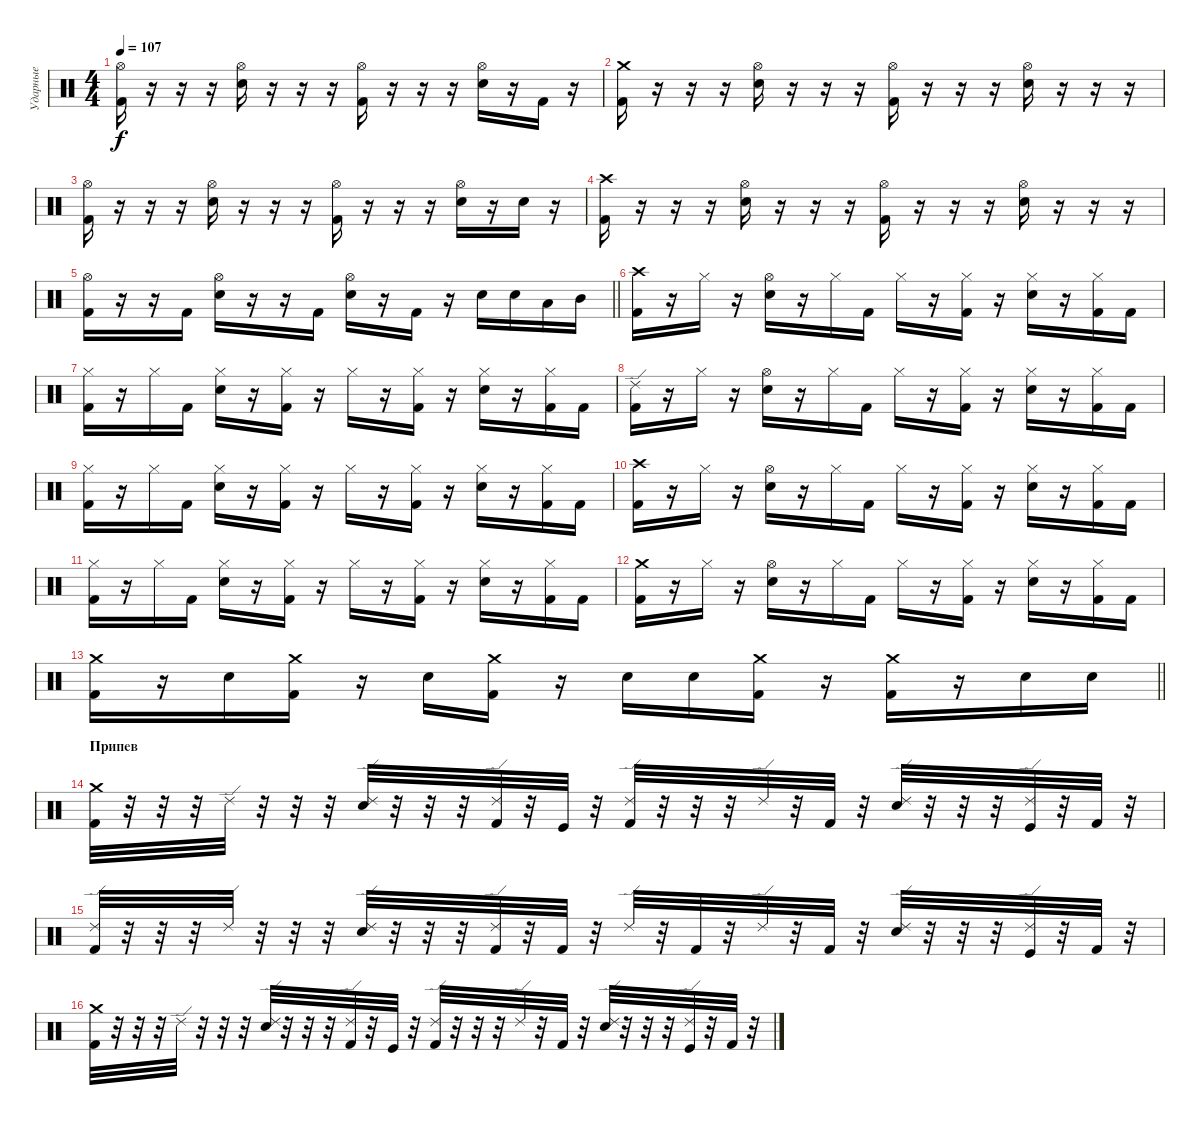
\track ("Ударные" "Ударные") {instrument percussion}
\staff {score}
\articulation defaults
\ts (4 4)
\tempo 107
\clef neutral
\ks c
("Hi-Hat (open)" "Kick (hit) 2").16{dy f} r.16 r.16 r.16 ("Hi-Hat (open)" "Electric Snare (hit)").16 r.16 r.16 r.16 ("Hi-Hat (open)" "Kick (hit) 2").16 r.16 r.16 r.16 ("Hi-Hat (open)" "Electric Snare (hit)").16 r.16 "Kick (hit) 2".16 r.16 |
("Crash medium (hit)" "Kick (hit) 2").16 r.16 r.16 r.16 ("Hi-Hat (open)" "Electric Snare (hit)").16 r.16 r.16 r.16 ("Hi-Hat (open)" "Kick (hit) 2").16 r.16 r.16 r.16 ("Hi-Hat (open)" "Electric Snare (hit)").16 r.16 r.16 r.16 |
("Hi-Hat (open)" "Kick (hit) 2").16 r.16 r.16 r.16 ("Hi-Hat (open)" "Electric Snare (hit)").16 r.16 r.16 r.16 ("Hi-Hat (open)" "Kick (hit) 2").16 r.16 r.16 r.16 ("Hi-Hat (open)" "Electric Snare (hit)").16 r.16 "Electric Snare (hit)".16 r.16 |
("Crash high (hit)" "Kick (hit) 2").16 r.16 r.16 r.16 ("Hi-Hat (open)" "Electric Snare (hit)").16 r.16 r.16 r.16 ("Hi-Hat (open)" "Kick (hit) 2").16 r.16 r.16 r.16 ("Hi-Hat (open)" "Electric Snare (hit)").16 r.16 r.16 r.16 |
\barLineRight lightlight
("Hi-Hat (open)" "Kick (hit) 2").16 r.16 r.16 "Kick (hit) 2".16 ("Hi-Hat (open)" "Electric Snare (hit)").16 r.16 r.16 "Kick (hit) 2".16 ("Hi-Hat (open)" "Electric Snare (hit)").16 r.16 "Kick (hit) 2".16 r.16 "Electric Snare (hit)".16 "Electric Snare (hit)".16 "Low Tom (hit)".16 "Mid Tom (hit)".16 |
("Crash high (hit)" "Kick (hit) 2").16 r.16 "Hi-Hat (closed)".16 r.16 ("Hi-Hat (open)" "Electric Snare (hit)").16 r.16 "Hi-Hat (closed)".16 "Kick (hit) 2".16 "Hi-Hat (closed)".16 r.16 ("Hi-Hat (closed)" "Kick (hit) 2").16 r.16 ("Hi-Hat (closed)" "Electric Snare (hit)").16 r.16 ("Hi-Hat (closed)" "Kick (hit) 2").16 "Kick (hit) 2".16 |
("Hi-Hat (closed)" "Kick (hit) 2").16 r.16 "Hi-Hat (closed)".16 "Kick (hit) 2".16 ("Hi-Hat (closed)" "Electric Snare (hit)").16 r.16 ("Hi-Hat (closed)" "Kick (hit) 2").16 r.16 "Hi-Hat (closed)".16 r.16 ("Hi-Hat (closed)" "Kick (hit) 2").16 r.16 ("Hi-Hat (closed)" "Electric Snare (hit)").16 r.16 ("Hi-Hat (closed)" "Kick (hit) 2").16 "Kick (hit) 2".16 |
("Ride (edge) 2" "Kick (hit) 2").16 r.16 "Hi-Hat (closed)".16 r.16 ("Hi-Hat (open)" "Electric Snare (hit)").16 r.16 "Hi-Hat (closed)".16 "Kick (hit) 2".16 "Hi-Hat (closed)".16 r.16 ("Hi-Hat (closed)" "Kick (hit) 2").16 r.16 ("Hi-Hat (closed)" "Electric Snare (hit)").16 r.16 ("Hi-Hat (closed)" "Kick (hit) 2").16 "Kick (hit) 2".16 |
("Hi-Hat (closed)" "Kick (hit) 2").16 r.16 "Hi-Hat (closed)".16 "Kick (hit) 2".16 ("Hi-Hat (closed)" "Electric Snare (hit)").16 r.16 ("Hi-Hat (closed)" "Kick (hit) 2").16 r.16 "Hi-Hat (closed)".16 r.16 ("Hi-Hat (closed)" "Kick (hit) 2").16 r.16 ("Hi-Hat (closed)" "Electric Snare (hit)").16 r.16 ("Hi-Hat (closed)" "Kick (hit) 2").16 "Kick (hit) 2".16 |
("Crash high (hit)" "Kick (hit) 2").16 r.16 "Hi-Hat (closed)".16 r.16 ("Hi-Hat (open)" "Electric Snare (hit)").16 r.16 "Hi-Hat (closed)".16 "Kick (hit) 2".16 "Hi-Hat (closed)".16 r.16 ("Hi-Hat (closed)" "Kick (hit) 2").16 r.16 ("Hi-Hat (closed)" "Electric Snare (hit)").16 r.16 ("Hi-Hat (closed)" "Kick (hit) 2").16 "Kick (hit) 2".16 |
("Hi-Hat (closed)" "Kick (hit) 2").16 r.16 "Hi-Hat (closed)".16 "Kick (hit) 2".16 ("Hi-Hat (closed)" "Electric Snare (hit)").16 r.16 ("Hi-Hat (closed)" "Kick (hit) 2").16 r.16 "Hi-Hat (closed)".16 r.16 ("Hi-Hat (closed)" "Kick (hit) 2").16 r.16 ("Hi-Hat (closed)" "Electric Snare (hit)").16 r.16 ("Hi-Hat (closed)" "Kick (hit) 2").16 "Kick (hit) 2".16 |
("Crash medium (hit)" "Kick (hit) 2").16 r.16 "Hi-Hat (closed)".16 r.16 ("Hi-Hat (open)" "Electric Snare (hit)").16 r.16 "Hi-Hat (closed)".16 "Kick (hit) 2".16 "Hi-Hat (closed)".16 r.16 ("Hi-Hat (closed)" "Kick (hit) 2").16 r.16 ("Hi-Hat (closed)" "Electric Snare (hit)").16 r.16 ("Hi-Hat (closed)" "Kick (hit) 2").16 "Kick (hit) 2".16 |
\barLineRight lightlight
("Crash medium (hit)" "Kick (hit) 2").16 r.16 "Electric Snare (hit)".16 ("Crash medium (hit)" "Kick (hit) 2").16 r.16 "Electric Snare (hit)".16 ("Crash medium (hit)" "Kick (hit) 2").16 r.16 "Electric Snare (hit)".16 "Electric Snare (hit)".16 ("Crash medium (hit)" "Kick (hit) 2").16 r.16 ("Crash medium (hit)" "Kick (hit) 2").16 r.16 "Electric Snare (hit)".16 "Electric Snare (hit)".16 |
\section ("" "Припев")
("Crash medium (hit)" "Kick (hit) 2").32 r.32 r.32 r.32 "Ride (edge) 2".32 r.32 r.32 r.32 ("Ride (edge) 2" "Electric Snare (hit)").32 r.32 r.32 r.32 ("Ride (edge) 2" "Kick (hit) 2").32 r.32 "Kick (hit)".32 r.32 ("Ride (edge) 2" "Kick (hit) 2").32 r.32 r.32 r.32 "Ride (edge) 2".32 r.32 "Kick (hit) 2".32 r.32 ("Ride (edge) 2" "Electric Snare (hit)").32 r.32 r.32 r.32 ("Ride (edge) 2" "Kick (hit)").32 r.32 "Kick (hit) 2".32 r.32 |
("Ride (edge) 2" "Kick (hit) 2").32 r.32 r.32 r.32 "Ride (edge) 2".32 r.32 r.32 r.32 ("Ride (edge) 2" "Electric Snare (hit)").32 r.32 r.32 r.32 ("Ride (edge) 2" "Kick (hit) 2").32 r.32 "Kick (hit) 2".32 r.32 "Ride (edge) 2".32 r.32 "Kick (hit) 2".32 r.32 "Ride (edge) 2".32 r.32 "Kick (hit) 2".32 r.32 ("Ride (edge) 2" "Electric Snare (hit)").32 r.32 r.32 r.32 ("Ride (edge) 2" "Kick (hit)").32 r.32 "Kick (hit) 2".32 r.32 |
("Crash medium (hit)" "Kick (hit) 2").32 r.32 r.32 r.32 "Ride (edge) 2".32 r.32 r.32 r.32 ("Ride (edge) 2" "Electric Snare (hit)").32 r.32 r.32 r.32 ("Ride (edge) 2" "Kick (hit) 2").32 r.32 "Kick (hit)".32 r.32 ("Ride (edge) 2" "Kick (hit) 2").32 r.32 r.32 r.32 "Ride (edge) 2".32 r.32 "Kick (hit) 2".32 r.32 ("Ride (edge) 2" "Electric Snare (hit)").32 r.32 r.32 r.32 ("Ride (edge) 2" "Kick (hit)").32 r.32 "Kick (hit) 2".32 r.32
